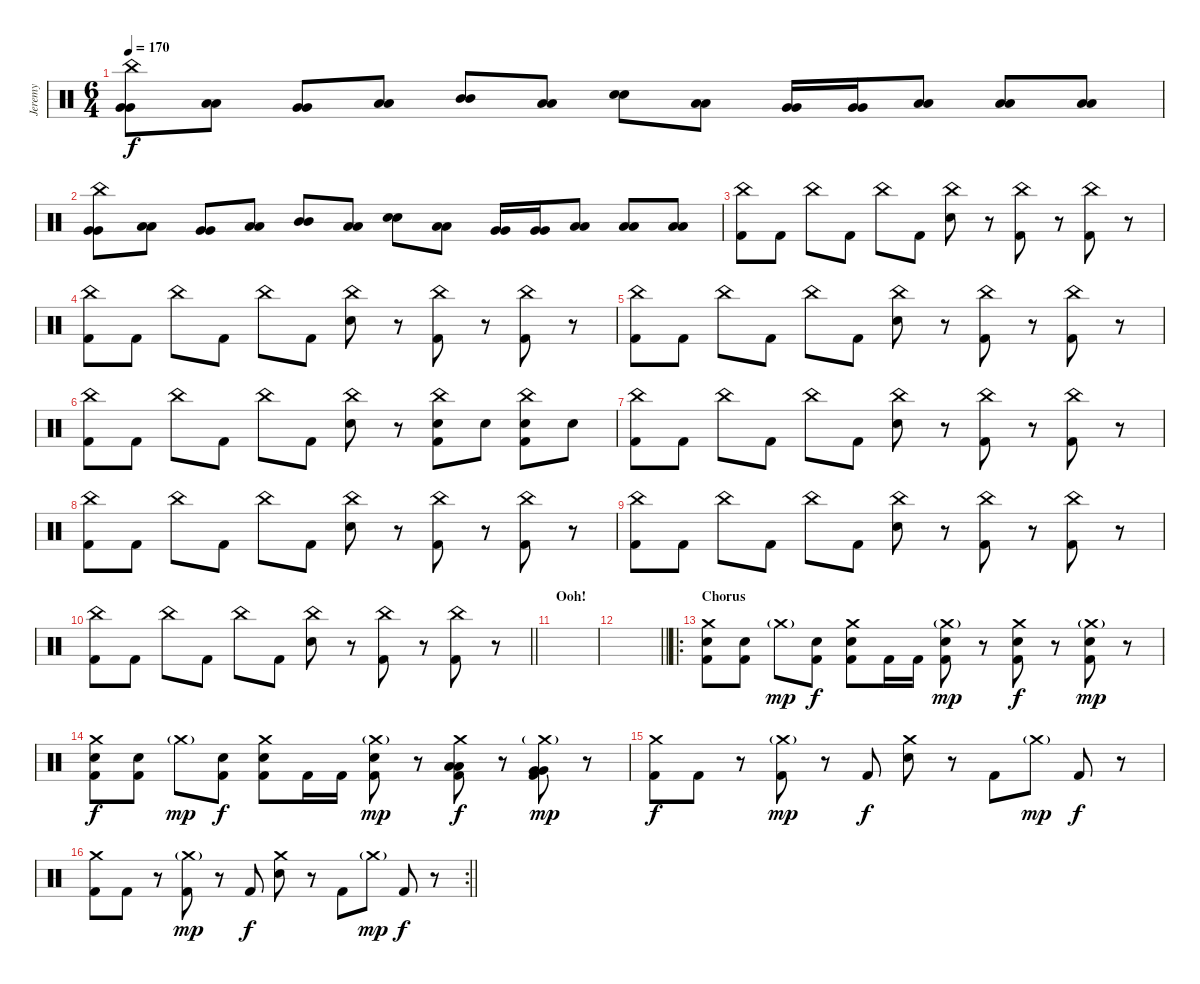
\track ("Jeremy" "Jeremy") {instrument percussion}
\staff {score}
\articulation defaults
\ts (6 4)
\tempo 170
\clef neutral
\ks c
("China (hit)" "Very Low Tom (hit)" "Very Low Tom (hit)").8{dy f} ("Low Floor Tom (hit)" "Low Floor Tom (hit)").8 ("Very Low Tom (hit)" "Very Low Tom (hit)").8 ("Low Tom (hit)" "Low Tom (hit)").8 ("Mid Tom (hit)" "Mid Tom (hit)").8 ("Low Tom (hit)" "Low Tom (hit)").8 ("Snare (hit) 2" "Snare (hit) 2").8 ("Low Tom (hit)" "Low Tom (hit)").8 ("Very Low Tom (hit)" "Very Low Tom (hit)").16 ("Very Low Tom (hit)" "Very Low Tom (hit)").16 ("Low Floor Tom (hit)" "Low Floor Tom (hit)").8 ("Low Floor Tom (hit)" "Low Floor Tom (hit)").8 ("Low Floor Tom (hit)" "Low Floor Tom (hit)").8 |
("China (hit)" "Very Low Tom (hit)" "Very Low Tom (hit)").8 ("Low Floor Tom (hit)" "Low Floor Tom (hit)").8 ("Very Low Tom (hit)" "Very Low Tom (hit)").8 ("Low Tom (hit)" "Low Tom (hit)").8 ("Mid Tom (hit)" "Mid Tom (hit)").8 ("Low Tom (hit)" "Low Tom (hit)").8 ("Snare (hit) 2" "Snare (hit) 2").8 ("Low Tom (hit)" "Low Tom (hit)").8 ("Very Low Tom (hit)" "Very Low Tom (hit)").16 ("Very Low Tom (hit)" "Very Low Tom (hit)").16 ("Low Floor Tom (hit)" "Low Floor Tom (hit)").8 ("Low Floor Tom (hit)" "Low Floor Tom (hit)").8 ("Low Floor Tom (hit)" "Low Floor Tom (hit)").8 |
("China (hit)" "Kick (hit) 2").8 "Kick (hit) 2".8 "China (hit)".8 "Kick (hit) 2".8 "China (hit)".8 "Kick (hit) 2".8 ("China (hit)" "Electric Snare (hit)").8 r.8 ("China (hit)" "Kick (hit) 2").8 r.8 ("China (hit)" "Kick (hit) 2").8 r.8 |
("China (hit)" "Kick (hit) 2").8 "Kick (hit) 2".8 "China (hit)".8 "Kick (hit) 2".8 "China (hit)".8 "Kick (hit) 2".8 ("China (hit)" "Electric Snare (hit)").8 r.8 ("China (hit)" "Kick (hit) 2").8 r.8 ("China (hit)" "Kick (hit) 2").8 r.8 |
("China (hit)" "Kick (hit) 2").8 "Kick (hit) 2".8 "China (hit)".8 "Kick (hit) 2".8 "China (hit)".8 "Kick (hit) 2".8 ("China (hit)" "Electric Snare (hit)").8 r.8 ("China (hit)" "Kick (hit) 2").8 r.8 ("China (hit)" "Kick (hit) 2").8 r.8 |
("China (hit)" "Kick (hit) 2").8 "Kick (hit) 2".8 "China (hit)".8 "Kick (hit) 2".8 "China (hit)".8 "Kick (hit) 2".8 ("China (hit)" "Electric Snare (hit)").8 r.8 ("China (hit)" "Electric Snare (hit)" "Kick (hit) 2").8 "Electric Snare (hit)".8 ("China (hit)" "Electric Snare (hit)" "Kick (hit) 2").8 "Electric Snare (hit)".8 |
("China (hit)" "Kick (hit) 2").8 "Kick (hit) 2".8 "China (hit)".8 "Kick (hit) 2".8 "China (hit)".8 "Kick (hit) 2".8 ("China (hit)" "Electric Snare (hit)").8 r.8 ("China (hit)" "Kick (hit) 2").8 r.8 ("China (hit)" "Kick (hit) 2").8 r.8 |
("China (hit)" "Kick (hit) 2").8 "Kick (hit) 2".8 "China (hit)".8 "Kick (hit) 2".8 "China (hit)".8 "Kick (hit) 2".8 ("China (hit)" "Electric Snare (hit)").8 r.8 ("China (hit)" "Kick (hit) 2").8 r.8 ("China (hit)" "Kick (hit) 2").8 r.8 |
("China (hit)" "Kick (hit) 2").8 "Kick (hit) 2".8 "China (hit)".8 "Kick (hit) 2".8 "China (hit)".8 "Kick (hit) 2".8 ("China (hit)" "Electric Snare (hit)").8 r.8 ("China (hit)" "Kick (hit) 2").8 r.8 ("China (hit)" "Kick (hit) 2").8 r.8 |
\barLineRight lightlight
("China (hit)" "Kick (hit) 2").8 "Kick (hit) 2".8 "China (hit)".8 "Kick (hit) 2".8 "China (hit)".8 "Kick (hit) 2".8 ("China (hit)" "Electric Snare (hit)").8 r.8 ("China (hit)" "Kick (hit) 2").8 r.8 ("China (hit)" "Kick (hit) 2").8 r.8 |
\section ("" "Ooh!")
|
\barLineRight lightlight
|
\ro
\section ("" "Chorus")
("Crash medium (hit)" "Electric Snare (hit)" "Kick (hit) 2").8 ("Electric Snare (hit)" "Kick (hit) 2").8 "Crash medium (hit)"{g}.8{dy mp} ("Electric Snare (hit)" "Kick (hit) 2").8{dy f} ("Crash medium (hit)" "Electric Snare (hit)" "Kick (hit) 2").8 "Kick (hit) 2".16 "Kick (hit) 2".16 ("Crash medium (hit)"{g} "Electric Snare (hit)" "Kick (hit) 2").8{dy mp} r.8 ("Crash medium (hit)" "Electric Snare (hit)" "Kick (hit) 2").8{dy f} r.8 ("Crash medium (hit)"{g} "Electric Snare (hit)" "Kick (hit) 2").8{dy mp} r.8 |
("Crash medium (hit)" "Electric Snare (hit)" "Kick (hit) 2").8{dy f} ("Electric Snare (hit)" "Kick (hit) 2").8 "Crash medium (hit)"{g}.8{dy mp} ("Electric Snare (hit)" "Kick (hit) 2").8{dy f} ("Crash medium (hit)" "Electric Snare (hit)" "Kick (hit) 2").8 "Kick (hit) 2".16 "Kick (hit) 2".16 ("Crash medium (hit)"{g} "Electric Snare (hit)" "Kick (hit) 2").8{dy mp} r.8 ("Crash medium (hit)" "Low Tom (hit)" "Low Tom (hit)" "Kick (hit) 2").8{dy f} r.8 ("Crash medium (hit)"{g} "Very Low Tom (hit)" "Very Low Tom (hit)" "Kick (hit) 2").8{dy mp} r.8 |
("Crash medium (hit)" "Kick (hit) 2").8{dy f} "Kick (hit) 2".8 r.8 ("Crash medium (hit)"{g} "Kick (hit) 2").8{dy mp} r.8 "Kick (hit) 2".8{dy f} ("Crash medium (hit)" "Electric Snare (hit)").8 r.8 "Kick (hit) 2".8 "Crash medium (hit)"{g}.8{dy mp} "Kick (hit) 2".8{dy f} r.8 |
\rc 2
\barLineRight lightlight
("Crash medium (hit)" "Kick (hit) 2").8 "Kick (hit) 2".8 r.8 ("Crash medium (hit)"{g} "Kick (hit) 2").8{dy mp} r.8 "Kick (hit) 2".8{dy f} ("Crash medium (hit)" "Electric Snare (hit)").8 r.8 "Kick (hit) 2".8 "Crash medium (hit)"{g}.8{dy mp} "Kick (hit) 2".8{dy f} r.8
